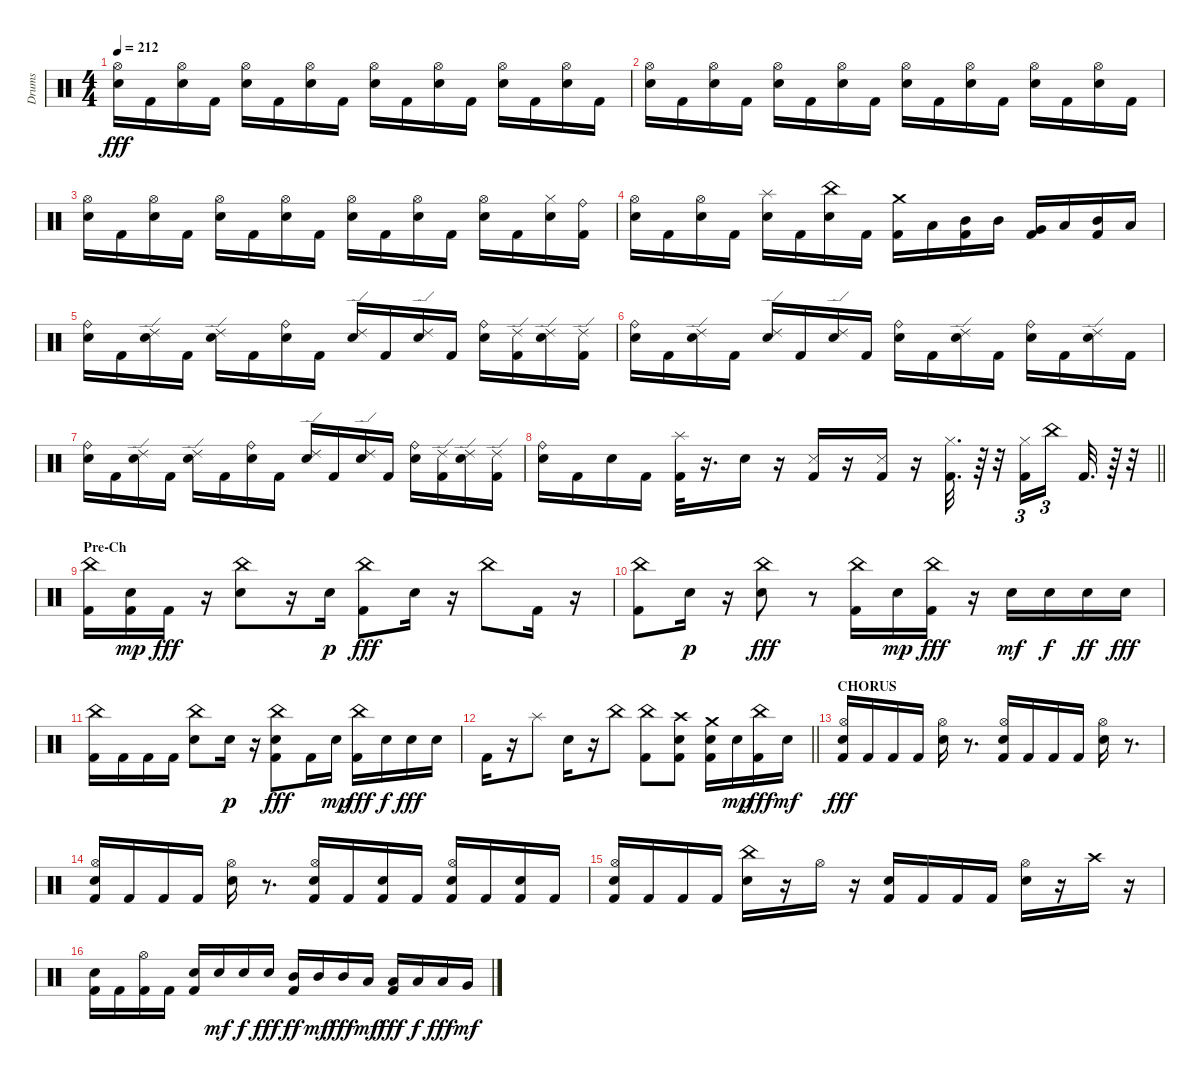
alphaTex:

\track ("Drums" "Drums") {instrument percussion}
\staff {score}
\articulation defaults
\ts (4 4)
\tempo 212
\clef neutral
\ks c
("Snare (hit) 2" "Hi-Hat (open)").16{dy fff} "Kick (hit) 2".16 ("Snare (hit) 2" "Hi-Hat (open)").16 "Kick (hit) 2".16 ("Snare (hit) 2" "Hi-Hat (open)").16 "Kick (hit) 2".16 ("Snare (hit) 2" "Hi-Hat (open)").16 "Kick (hit) 2".16 ("Snare (hit) 2" "Hi-Hat (open)").16 "Kick (hit) 2".16 ("Snare (hit) 2" "Hi-Hat (open)").16 "Kick (hit) 2".16 ("Snare (hit) 2" "Hi-Hat (open)").16 "Kick (hit) 2".16 ("Snare (hit) 2" "Hi-Hat (open)").16 "Kick (hit) 2".16 |
("Snare (hit) 2" "Hi-Hat (open)").16 "Kick (hit) 2".16 ("Snare (hit) 2" "Hi-Hat (open)").16 "Kick (hit) 2".16 ("Snare (hit) 2" "Hi-Hat (open)").16 "Kick (hit) 2".16 ("Snare (hit) 2" "Hi-Hat (open)").16 "Kick (hit) 2".16 ("Snare (hit) 2" "Hi-Hat (open)").16 "Kick (hit) 2".16 ("Snare (hit) 2" "Hi-Hat (open)").16 "Kick (hit) 2".16 ("Snare (hit) 2" "Hi-Hat (open)").16 "Kick (hit) 2".16 ("Snare (hit) 2" "Hi-Hat (open)").16 "Kick (hit) 2".16 |
("Snare (hit) 2" "Hi-Hat (open)").16 "Kick (hit) 2".16 ("Snare (hit) 2" "Hi-Hat (open)").16 "Kick (hit) 2".16 ("Snare (hit) 2" "Hi-Hat (open)").16 "Kick (hit) 2".16 ("Snare (hit) 2" "Hi-Hat (open)").16 "Kick (hit) 2".16 ("Snare (hit) 2" "Hi-Hat (open)").16 "Kick (hit) 2".16 ("Snare (hit) 2" "Hi-Hat (open)").16 "Kick (hit) 2".16 ("Snare (hit) 2" "Hi-Hat (open)").16 "Kick (hit) 2".16 ("Snare (hit) 2" "Hi-Hat (closed)").16 ("Kick (hit) 2" "Ride (bell)").16 |
("Snare (hit) 2" "Hi-Hat (open)").16 "Kick (hit) 2".16 ("Snare (hit) 2" "Hi-Hat (open)").16 "Kick (hit) 2".16 ("Snare (hit) 2" "Splash (hit)").16 "Kick (hit) 2".16 ("Snare (hit) 2" "China (hit)").16 "Kick (hit) 2".16 ("Kick (hit) 2" "Crash medium (hit)").16 "Low Tom (hit)".16 ("Kick (hit) 2" "Mid Tom (hit)").16 "Mid Tom (hit)".16 ("Kick (hit) 2" "Very Low Tom (hit)").16 "Low Tom (hit)".16 ("Kick (hit) 2" "Mid Tom (hit)").16 "Low Floor Tom (hit)".16 |
("Snare (hit) 2" "Ride (bell)").16 "Kick (hit) 2".16 ("Snare (hit) 2" "Ride (edge) 2").16 "Kick (hit) 2".16 ("Snare (hit) 2" "Ride (edge) 2").16 "Kick (hit) 2".16 ("Snare (hit) 2" "Ride (bell)").16 "Kick (hit) 2".16 ("Snare (hit) 2" "Ride (edge) 2").16 "Kick (hit) 2".16 ("Snare (hit) 2" "Ride (edge) 2").16 "Kick (hit) 2".16 ("Snare (hit) 2" "Ride (bell)").16 ("Kick (hit) 2" "Ride (edge) 2").16 ("Snare (hit) 2" "Ride (edge) 2").16 ("Kick (hit) 2" "Ride (edge) 2").16 |
("Snare (hit) 2" "Ride (bell)").16 "Kick (hit) 2".16 ("Snare (hit) 2" "Ride (edge) 2").16 "Kick (hit) 2".16 ("Snare (hit) 2" "Ride (edge) 2").16 "Kick (hit) 2".16 ("Snare (hit) 2" "Ride (edge) 2").16 "Kick (hit) 2".16 ("Snare (hit) 2" "Ride (bell)").16 "Kick (hit) 2".16 ("Snare (hit) 2" "Ride (edge) 2").16 "Kick (hit) 2".16 ("Snare (hit) 2" "Ride (bell)").16 "Kick (hit) 2".16 ("Snare (hit) 2" "Ride (edge) 2").16 "Kick (hit) 2".16 |
("Snare (hit) 2" "Ride (bell)").16 "Kick (hit) 2".16 ("Snare (hit) 2" "Ride (edge) 2").16 "Kick (hit) 2".16 ("Snare (hit) 2" "Ride (edge) 2").16 "Kick (hit) 2".16 ("Snare (hit) 2" "Ride (bell)").16 "Kick (hit) 2".16 ("Snare (hit) 2" "Ride (edge) 2").16 "Kick (hit) 2".16 ("Snare (hit) 2" "Ride (edge) 2").16 "Kick (hit) 2".16 ("Snare (hit) 2" "Ride (bell)").16 ("Kick (hit) 2" "Ride (edge) 2").16 ("Snare (hit) 2" "Ride (edge) 2").16 ("Kick (hit) 2" "Ride (edge) 2").16 |
\barLineRight lightlight
("Snare (hit) 2" "Ride (bell)").16 "Kick (hit) 2".16 "Snare (hit) 2".16 "Kick (hit) 2".16 ("Kick (hit) 2" "Splash (hit)").32 r.16{d} "Snare (hit) 2".16 r.16 ("Kick (hit) 2" "Snare (side stick) 3").16 r.16 ("Kick (hit) 2" "Snare (side stick) 3").16 r.16 ("Kick (hit) 2" "Hi-Hat (closed)").32{d} r.64 r.32 ("Kick (hit) 2" "Hi-Hat (closed)").16{tu (3 2)} "China (hit)".16{tu (3 2) beam splitsecondary} "Kick (hit) 2".32{d} r.64 r.32 |
\section ("" "Pre-Ch")
("Kick (hit) 2" "China (hit)").16 ("Kick (hit) 2" "Snare (hit) 2").16{dy mp} "Kick (hit) 2".16{dy fff} r.16 ("Snare (hit) 2" "China (hit)").8 r.16 "Snare (hit) 2".16{dy p} ("Kick (hit) 2" "China (hit)").8{dy fff} "Snare (hit) 2".16 r.16 "China (hit)".8 "Kick (hit) 2".16 r.16 |
("Kick (hit) 2" "China (hit)").8 "Snare (hit) 2".16{dy p} r.16 ("Snare (hit) 2" "China (hit)").8{dy fff} r.8 ("Kick (hit) 2" "China (hit)").16 "Snare (hit) 2".16{dy mp} ("Kick (hit) 2" "China (hit)").16{dy fff} r.16 "Snare (hit) 2".16{dy mf} "Snare (hit) 2".16{dy f} "Snare (hit) 2".16{dy ff} "Snare (hit) 2".16{dy fff} |
("Kick (hit) 2" "China (hit)").16 "Kick (hit) 2".16 "Kick (hit) 2".16 "Kick (hit) 2".16 ("Snare (hit) 2" "China (hit)").8 "Snare (hit) 2".16{dy p} r.16 ("Kick (hit) 2" "Snare (hit) 2" "China (hit)").8{dy fff} "Kick (hit) 2".16 "Snare (hit) 2".16{dy mp} ("Kick (hit) 2" "China (hit)").16{dy fff} "Snare (hit) 2".16{dy f} "Snare (hit) 2".16{dy fff} "Snare (hit) 2".16 |
\barLineRight lightlight "Kick (hit) 2".16
r.16 "Splash (hit)".8 "Snare (hit) 2".16 r.16 "China (hit)".8 ("Kick (hit) 2" "China (hit)").8 ("Kick (hit) 2" "Snare (hit) 2" "Crash high (hit)").8 ("Kick (hit) 2" "Snare (hit) 2" "Crash medium (hit)").16 "Snare (hit) 2".16{dy mp} ("Kick (hit) 2" "China (hit)").16{dy fff} "Snare (hit) 2".16{dy mf} |
\section ("" "CHORUS")
("Kick (hit) 2" "Snare (hit) 2" "Hi-Hat (open)").16{dy fff} "Kick (hit) 2".16 "Kick (hit) 2".16 "Kick (hit) 2".16 ("Snare (hit) 2" "Hi-Hat (open)").16 r.8{d} ("Kick (hit) 2" "Snare (hit) 2" "Hi-Hat (open)").16 "Kick (hit) 2".16 "Kick (hit) 2".16 "Kick (hit) 2".16 ("Snare (hit) 2" "Hi-Hat (open)").16 r.8{d} |
("Kick (hit) 2" "Snare (hit) 2" "Hi-Hat (open)").16 "Kick (hit) 2".16 "Kick (hit) 2".16 "Kick (hit) 2".16 ("Snare (hit) 2" "Hi-Hat (open)").16 r.8{d} ("Kick (hit) 2" "Snare (hit) 2" "Hi-Hat (open)").16 "Kick (hit) 2".16 ("Kick (hit) 2" "Snare (hit) 2").16 "Kick (hit) 2".16 ("Kick (hit) 2" "Snare (hit) 2" "Hi-Hat (open)").16 "Kick (hit) 2".16 ("Kick (hit) 2" "Snare (hit) 2").16 "Kick (hit) 2".16 |
("Kick (hit) 2" "Snare (hit) 2" "Hi-Hat (open)").16 "Kick (hit) 2".16 "Kick (hit) 2".16 "Kick (hit) 2".16 ("Snare (hit) 2" "China (hit)").16 r.16 "Hi-Hat (open)".16 r.16 ("Kick (hit) 2" "Snare (hit) 2").16 "Kick (hit) 2".16 "Kick (hit) 2".16 "Kick (hit) 2".16 ("Snare (hit) 2" "Hi-Hat (open)").16 r.16 "Crash high (hit)".16 r.16 |
("Kick (hit) 2" "Snare (hit) 2").16 "Kick (hit) 2".16 ("Kick (hit) 2" "Hi-Hat (open)").16 "Kick (hit) 2".16 ("Kick (hit) 2" "Snare (hit) 2").16 "Snare (hit) 2".16{dy mf} "Snare (hit) 2".16{dy f} "Snare (hit) 2".16{dy fff} ("Kick (hit) 2" "Mid Tom (hit)").16{dy ff} "Mid Tom (hit)".16{dy mf} "Mid Tom (hit)".16{dy fff} "Low Tom (hit)".16{dy mf} ("Kick (hit) 2" "Low Tom (hit)").16{dy fff} "Low Tom (hit)".16{dy f} "Low Tom (hit)".16{dy fff} "Very Low Tom (hit)".16{dy mf}
